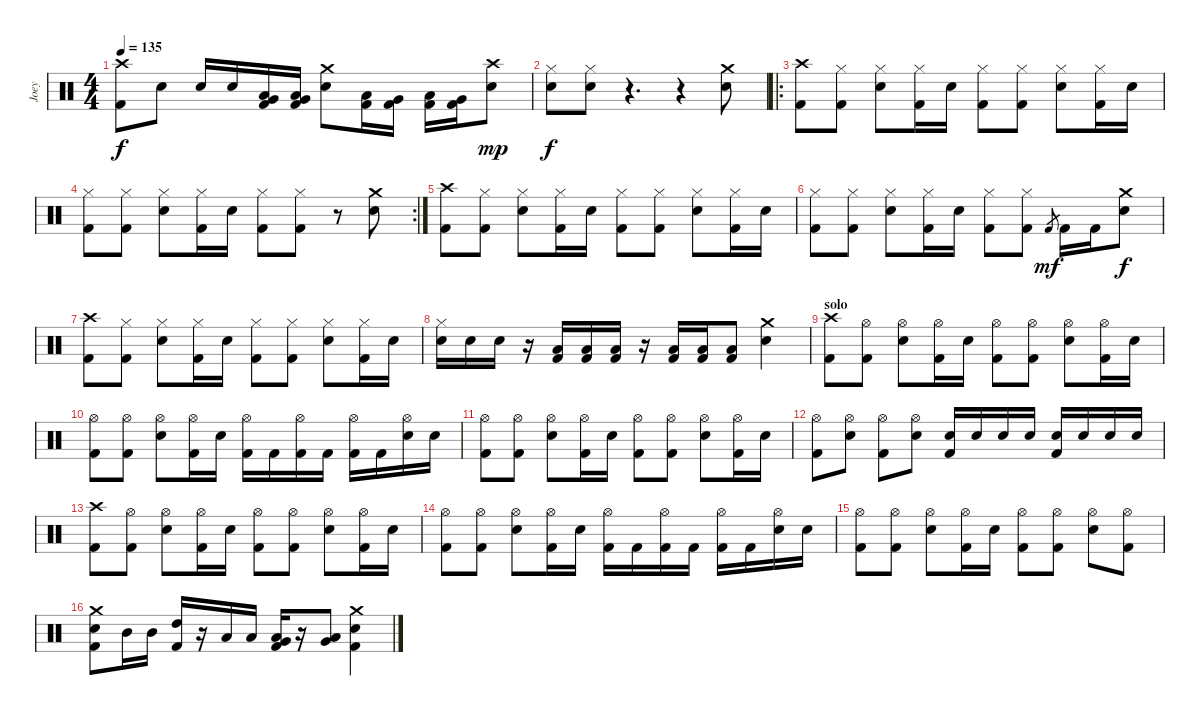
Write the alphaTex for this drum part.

\track ("Joey" "Joey") {instrument percussion}
\staff {score}
\articulation defaults
\ts (4 4)
\tempo 135
\clef neutral
\ks c
("Crash high (hit)" "Kick (hit) 2").8{dy f} "Electric Snare (hit)".8 "Electric Snare (hit)".16 "Electric Snare (hit)".16 ("Low Tom (hit)" "Very Low Tom (hit)" "Kick (hit) 2").16 ("Low Tom (hit)" "Very Low Tom (hit)" "Kick (hit) 2").16 ("Crash medium (hit)" "Electric Snare (hit)").8 ("Low Tom (hit)" "Kick (hit) 2").16 ("Very Low Tom (hit)" "Kick (hit) 2").16 ("Low Tom (hit)" "Kick (hit) 2").16 ("Very Low Tom (hit)" "Kick (hit) 2").16 ("Crash high (hit)" "Electric Snare (hit)").8{dy mp} |
("Hi-Hat (closed)" "Electric Snare (hit)").8{dy f} ("Hi-Hat (closed)" "Electric Snare (hit)").8 r.4{d} r.4 ("Crash medium (hit)" "Electric Snare (hit)").8 |
\ro
("Crash high (hit)" "Kick (hit) 2").8 ("Hi-Hat (closed)" "Kick (hit) 2").8 ("Hi-Hat (closed)" "Electric Snare (hit)").8 ("Hi-Hat (closed)" "Kick (hit) 2").16 "Electric Snare (hit)".16 ("Hi-Hat (closed)" "Kick (hit) 2").8 ("Hi-Hat (closed)" "Kick (hit) 2").8 ("Hi-Hat (closed)" "Electric Snare (hit)").8 ("Hi-Hat (closed)" "Kick (hit) 2").16 "Electric Snare (hit)".16 |
\rc 2
("Hi-Hat (closed)" "Kick (hit) 2").8 ("Hi-Hat (closed)" "Kick (hit) 2").8 ("Hi-Hat (closed)" "Electric Snare (hit)").8 ("Hi-Hat (closed)" "Kick (hit) 2").16 "Electric Snare (hit)".16 ("Hi-Hat (closed)" "Kick (hit) 2").8 ("Hi-Hat (closed)" "Kick (hit) 2").8 r.8 ("Crash medium (hit)" "Electric Snare (hit)").8 |
("Crash high (hit)" "Kick (hit) 2").8 ("Hi-Hat (closed)" "Kick (hit) 2").8 ("Hi-Hat (closed)" "Electric Snare (hit)").8 ("Hi-Hat (closed)" "Kick (hit) 2").16 "Electric Snare (hit)".16 ("Hi-Hat (closed)" "Kick (hit) 2").8 ("Hi-Hat (closed)" "Kick (hit) 2").8 ("Hi-Hat (closed)" "Electric Snare (hit)").8 ("Hi-Hat (closed)" "Kick (hit) 2").16 "Electric Snare (hit)".16 |
("Hi-Hat (closed)" "Kick (hit) 2").8 ("Hi-Hat (closed)" "Kick (hit) 2").8 ("Hi-Hat (closed)" "Electric Snare (hit)").8 ("Hi-Hat (closed)" "Kick (hit) 2").16 "Electric Snare (hit)".16 ("Hi-Hat (closed)" "Kick (hit) 2").8 ("Hi-Hat (closed)" "Kick (hit) 2").8 "Kick (hit) 2".8{gr dy mf} "Kick (hit) 2".16 "Kick (hit) 2".16 ("Crash medium (hit)" "Electric Snare (hit)").8{dy f} |
("Crash high (hit)" "Kick (hit) 2").8 ("Hi-Hat (closed)" "Kick (hit) 2").8 ("Hi-Hat (closed)" "Electric Snare (hit)").8 ("Hi-Hat (closed)" "Kick (hit) 2").16 "Electric Snare (hit)".16 ("Hi-Hat (closed)" "Kick (hit) 2").8 ("Hi-Hat (closed)" "Kick (hit) 2").8 ("Hi-Hat (closed)" "Electric Snare (hit)").8 ("Hi-Hat (closed)" "Kick (hit) 2").16 "Electric Snare (hit)".16 |
("Hi-Hat (closed)" "Electric Snare (hit)").16 "Electric Snare (hit)".16 "Electric Snare (hit)".16 r.16 ("Low Tom (hit)" "Kick (hit) 2").16 ("Low Tom (hit)" "Kick (hit) 2").16 ("Low Tom (hit)" "Kick (hit) 2").16 r.16 ("Low Tom (hit)" "Kick (hit) 2").16 ("Low Tom (hit)" "Kick (hit) 2").16 ("Low Tom (hit)" "Kick (hit) 2").8 ("Crash medium (hit)" "Electric Snare (hit)").4 |
\section ("" "solo")
("Crash high (hit)" "Kick (hit) 2").8 ("Hi-Hat (open)" "Kick (hit) 2").8 ("Hi-Hat (open)" "Electric Snare (hit)").8 ("Hi-Hat (open)" "Kick (hit) 2").16 "Electric Snare (hit)".16 ("Hi-Hat (open)" "Kick (hit) 2").8 ("Hi-Hat (open)" "Kick (hit) 2").8 ("Hi-Hat (open)" "Electric Snare (hit)").8 ("Hi-Hat (open)" "Kick (hit) 2").16 "Electric Snare (hit)".16 |
("Hi-Hat (open)" "Kick (hit) 2").8 ("Hi-Hat (open)" "Kick (hit) 2").8 ("Hi-Hat (open)" "Electric Snare (hit)").8 ("Hi-Hat (open)" "Kick (hit) 2").16 "Electric Snare (hit)".16 ("Hi-Hat (open)" "Kick (hit) 2").16 "Kick (hit) 2".16 ("Hi-Hat (open)" "Kick (hit) 2").16 "Kick (hit) 2".16 ("Hi-Hat (open)" "Kick (hit) 2").16 "Kick (hit) 2".16 ("Hi-Hat (open)" "Electric Snare (hit)").16 "Electric Snare (hit)".16 |
("Hi-Hat (open)" "Kick (hit) 2").8 ("Hi-Hat (open)" "Kick (hit) 2").8 ("Hi-Hat (open)" "Electric Snare (hit)").8 ("Hi-Hat (open)" "Kick (hit) 2").16 "Electric Snare (hit)".16 ("Hi-Hat (open)" "Kick (hit) 2").8 ("Hi-Hat (open)" "Kick (hit) 2").8 ("Hi-Hat (open)" "Electric Snare (hit)").8 ("Hi-Hat (open)" "Kick (hit) 2").16 "Electric Snare (hit)".16 |
("Hi-Hat (open)" "Kick (hit) 2").8 ("Hi-Hat (open)" "Electric Snare (hit)").8 ("Hi-Hat (open)" "Kick (hit) 2").8 ("Hi-Hat (open)" "Electric Snare (hit)").8 ("Electric Snare (hit)" "Kick (hit) 2").16 "Electric Snare (hit)".16 "Electric Snare (hit)".16 "Electric Snare (hit)".16 ("Electric Snare (hit)" "Kick (hit) 2").16 "Electric Snare (hit)".16 "Electric Snare (hit)".16 "Electric Snare (hit)".16 |
("Crash high (hit)" "Kick (hit) 2").8 ("Hi-Hat (open)" "Kick (hit) 2").8 ("Hi-Hat (open)" "Electric Snare (hit)").8 ("Hi-Hat (open)" "Kick (hit) 2").16 "Electric Snare (hit)".16 ("Hi-Hat (open)" "Kick (hit) 2").8 ("Hi-Hat (open)" "Kick (hit) 2").8 ("Hi-Hat (open)" "Electric Snare (hit)").8 ("Hi-Hat (open)" "Kick (hit) 2").16 "Electric Snare (hit)".16 |
("Hi-Hat (open)" "Kick (hit) 2").8 ("Hi-Hat (open)" "Kick (hit) 2").8 ("Hi-Hat (open)" "Electric Snare (hit)").8 ("Hi-Hat (open)" "Kick (hit) 2").16 "Electric Snare (hit)".16 ("Hi-Hat (open)" "Kick (hit) 2").16 "Kick (hit) 2".16 ("Hi-Hat (open)" "Kick (hit) 2").16 "Kick (hit) 2".16 ("Hi-Hat (open)" "Kick (hit) 2").16 "Kick (hit) 2".16 ("Hi-Hat (open)" "Electric Snare (hit)").16 "Electric Snare (hit)".16 |
("Hi-Hat (open)" "Kick (hit) 2").8 ("Hi-Hat (open)" "Kick (hit) 2").8 ("Hi-Hat (open)" "Electric Snare (hit)").8 ("Hi-Hat (open)" "Kick (hit) 2").16 "Electric Snare (hit)".16 ("Hi-Hat (open)" "Kick (hit) 2").8 ("Hi-Hat (open)" "Kick (hit) 2").8 ("Hi-Hat (open)" "Electric Snare (hit)").8 ("Hi-Hat (open)" "Kick (hit) 2").8 |
("Crash medium (hit)" "Electric Snare (hit)" "Kick (hit) 2").8 "Mid Tom (hit)".16 "Mid Tom (hit)".16 ("High Tom (hit)" "Kick (hit) 2").16 r.16 "Low Tom (hit)".16 "Low Tom (hit)".16 ("Very Low Tom (hit)" "Low Floor Tom (hit)" "Kick (hit) 2").16 r.16 ("Very Low Tom (hit)" "Low Floor Tom (hit)").8 ("Crash medium (hit)" "Electric Snare (hit)" "Kick (hit) 2").4
